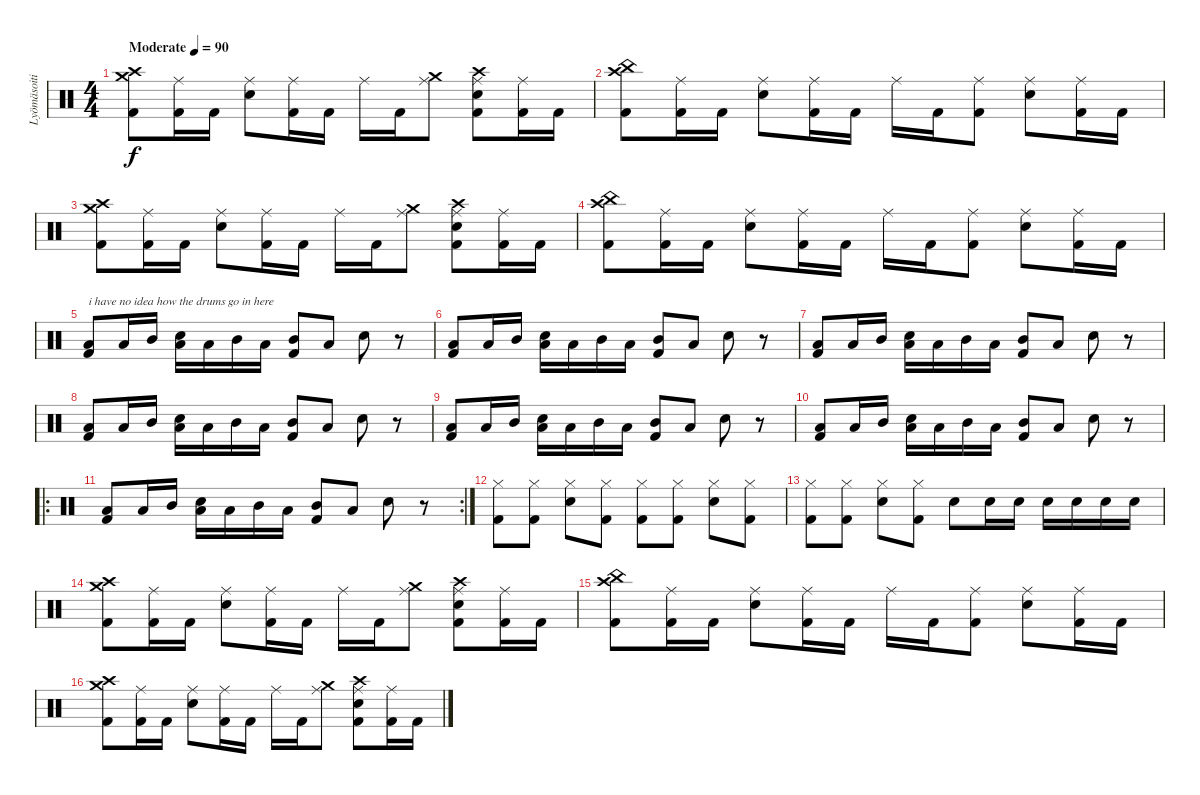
\track ("Lyömäsoitin" "Lyömäsoiti") {instrument percussion}
\staff {score}
\articulation defaults
\ts (4 4)
\tempo (90 "Moderate")
\clef neutral
\ks c
("Crash high (hit)" "Crash medium (hit)" "Kick (hit) 2").8{dy f} ("Ride (middle)" "Kick (hit) 2").16 "Kick (hit) 2".16 ("Ride (middle)" "Snare (hit) 2").8 ("Ride (middle)" "Kick (hit) 2").16 "Kick (hit) 2".16 "Ride (middle)".16 "Kick (hit) 2".16 ("Ride (middle)" "Crash medium (hit)").8 ("Ride (middle)" "Crash high (hit)" "Snare (hit) 2" "Kick (hit) 2").8 ("Ride (middle)" "Kick (hit) 2").16 "Kick (hit) 2".16 |
("Crash high (hit)" "China (hit)" "Kick (hit) 2").8 ("Ride (middle)" "Kick (hit) 2").16 "Kick (hit) 2".16 ("Ride (middle)" "Snare (hit) 2").8 ("Ride (middle)" "Kick (hit) 2").16 "Kick (hit) 2".16 "Ride (middle)".16 "Kick (hit) 2".16 ("Ride (middle)" "Kick (hit) 2").8 ("Ride (middle)" "Snare (hit) 2").8 ("Ride (middle)" "Kick (hit) 2").16 "Kick (hit) 2".16 |
("Crash high (hit)" "Crash medium (hit)" "Kick (hit) 2").8 ("Ride (middle)" "Kick (hit) 2").16 "Kick (hit) 2".16 ("Ride (middle)" "Snare (hit) 2").8 ("Ride (middle)" "Kick (hit) 2").16 "Kick (hit) 2".16 "Ride (middle)".16 "Kick (hit) 2".16 ("Ride (middle)" "Crash medium (hit)").8 ("Ride (middle)" "Crash high (hit)" "Snare (hit) 2" "Kick (hit) 2").8 ("Ride (middle)" "Kick (hit) 2").16 "Kick (hit) 2".16 |
("Crash high (hit)" "China (hit)" "Kick (hit) 2").8 ("Ride (middle)" "Kick (hit) 2").16 "Kick (hit) 2".16 ("Ride (middle)" "Snare (hit) 2").8 ("Ride (middle)" "Kick (hit) 2").16 "Kick (hit) 2".16 "Ride (middle)".16 "Kick (hit) 2".16 ("Ride (middle)" "Kick (hit) 2").8 ("Ride (middle)" "Snare (hit) 2").8 ("Ride (middle)" "Kick (hit) 2").16 "Kick (hit) 2".16 |
("Low Tom (hit)" "Kick (hit) 2").8{txt "i have no idea how the drums go in here"} "Low Tom (hit)".16 "Mid Tom (hit)".16 ("Low Floor Tom (hit)" "Snare (hit) 2").16 "Low Tom (hit)".16 "Mid Tom (hit)".16 "Low Tom (hit)".16 ("Mid Tom (hit)" "Kick (hit) 2").8 "Low Floor Tom (hit)".8 "Snare (hit) 2".8 r.8 |
("Low Tom (hit)" "Kick (hit) 2").8 "Low Tom (hit)".16 "Mid Tom (hit)".16 ("Low Floor Tom (hit)" "Snare (hit) 2").16 "Low Tom (hit)".16 "Mid Tom (hit)".16 "Low Tom (hit)".16 ("Mid Tom (hit)" "Kick (hit) 2").8 "Low Floor Tom (hit)".8 "Snare (hit) 2".8 r.8 |
("Low Tom (hit)" "Kick (hit) 2").8 "Low Tom (hit)".16 "Mid Tom (hit)".16 ("Low Floor Tom (hit)" "Snare (hit) 2").16 "Low Tom (hit)".16 "Mid Tom (hit)".16 "Low Tom (hit)".16 ("Mid Tom (hit)" "Kick (hit) 2").8 "Low Floor Tom (hit)".8 "Snare (hit) 2".8 r.8 |
("Low Tom (hit)" "Kick (hit) 2").8 "Low Tom (hit)".16 "Mid Tom (hit)".16 ("Low Floor Tom (hit)" "Snare (hit) 2").16 "Low Tom (hit)".16 "Mid Tom (hit)".16 "Low Tom (hit)".16 ("Mid Tom (hit)" "Kick (hit) 2").8 "Low Floor Tom (hit)".8 "Snare (hit) 2".8 r.8 |
("Low Tom (hit)" "Kick (hit) 2").8 "Low Tom (hit)".16 "Mid Tom (hit)".16 ("Low Floor Tom (hit)" "Snare (hit) 2").16 "Low Tom (hit)".16 "Mid Tom (hit)".16 "Low Tom (hit)".16 ("Mid Tom (hit)" "Kick (hit) 2").8 "Low Floor Tom (hit)".8 "Snare (hit) 2".8 r.8 |
("Low Tom (hit)" "Kick (hit) 2").8 "Low Tom (hit)".16 "Mid Tom (hit)".16 ("Low Floor Tom (hit)" "Snare (hit) 2").16 "Low Tom (hit)".16 "Mid Tom (hit)".16 "Low Tom (hit)".16 ("Mid Tom (hit)" "Kick (hit) 2").8 "Low Floor Tom (hit)".8 "Snare (hit) 2".8 r.8 |
\ro
\rc 2
("Low Tom (hit)" "Kick (hit) 2").8 "Low Tom (hit)".16 "Mid Tom (hit)".16 ("Low Floor Tom (hit)" "Snare (hit) 2").16 "Low Tom (hit)".16 "Mid Tom (hit)".16 "Low Tom (hit)".16 ("Mid Tom (hit)" "Kick (hit) 2").8 "Low Floor Tom (hit)".8 "Snare (hit) 2".8 r.8 |
("Hi-Hat (closed)" "Kick (hit) 2").8 ("Hi-Hat (closed)" "Kick (hit) 2").8 ("Hi-Hat (closed)" "Snare (hit) 2").8 ("Hi-Hat (closed)" "Kick (hit) 2").8 ("Hi-Hat (closed)" "Kick (hit) 2").8 ("Hi-Hat (closed)" "Kick (hit) 2").8 ("Hi-Hat (closed)" "Snare (hit) 2").8 ("Hi-Hat (closed)" "Kick (hit) 2").8 |
("Hi-Hat (closed)" "Kick (hit) 2").8 ("Hi-Hat (closed)" "Kick (hit) 2").8 ("Hi-Hat (closed)" "Snare (hit) 2").8 ("Hi-Hat (closed)" "Kick (hit) 2").8 "Snare (hit) 2".8 "Snare (hit) 2".16 "Snare (hit) 2".16 "Snare (hit) 2".16 "Snare (hit) 2".16 "Snare (hit) 2".16 "Snare (hit) 2".16 |
("Crash high (hit)" "Crash medium (hit)" "Kick (hit) 2").8 ("Ride (middle)" "Kick (hit) 2").16 "Kick (hit) 2".16 ("Ride (middle)" "Snare (hit) 2").8 ("Ride (middle)" "Kick (hit) 2").16 "Kick (hit) 2".16 "Ride (middle)".16 "Kick (hit) 2".16 ("Ride (middle)" "Crash medium (hit)").8 ("Ride (middle)" "Crash high (hit)" "Snare (hit) 2" "Kick (hit) 2").8 ("Ride (middle)" "Kick (hit) 2").16 "Kick (hit) 2".16 |
("Crash high (hit)" "China (hit)" "Kick (hit) 2").8 ("Ride (middle)" "Kick (hit) 2").16 "Kick (hit) 2".16 ("Ride (middle)" "Snare (hit) 2").8 ("Ride (middle)" "Kick (hit) 2").16 "Kick (hit) 2".16 "Ride (middle)".16 "Kick (hit) 2".16 ("Ride (middle)" "Kick (hit) 2").8 ("Ride (middle)" "Snare (hit) 2").8 ("Ride (middle)" "Kick (hit) 2").16 "Kick (hit) 2".16 |
("Crash high (hit)" "Crash medium (hit)" "Kick (hit) 2").8 ("Ride (middle)" "Kick (hit) 2").16 "Kick (hit) 2".16 ("Ride (middle)" "Snare (hit) 2").8 ("Ride (middle)" "Kick (hit) 2").16 "Kick (hit) 2".16 "Ride (middle)".16 "Kick (hit) 2".16 ("Ride (middle)" "Crash medium (hit)").8 ("Ride (middle)" "Crash high (hit)" "Snare (hit) 2" "Kick (hit) 2").8 ("Ride (middle)" "Kick (hit) 2").16 "Kick (hit) 2".16
